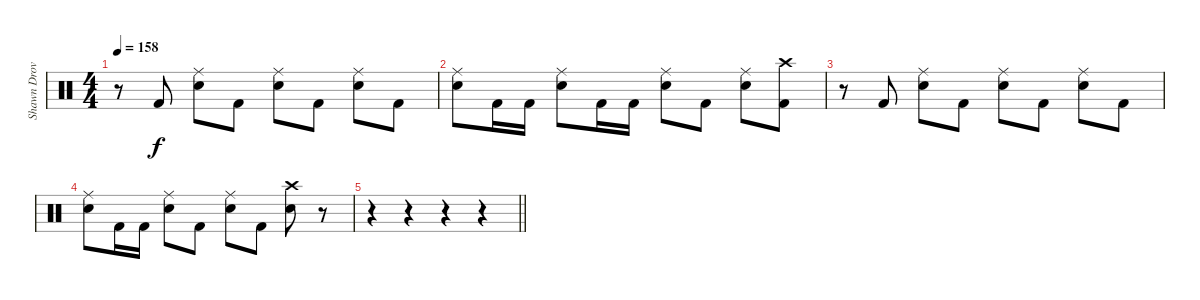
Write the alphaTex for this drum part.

\track ("Shawn Drover" "Shawn Drov") {instrument percussion}
\staff
\articulation defaults
\ts (4 4)
\tempo 158
\clef neutral
\ks c
r.8{dy f} "Kick (hit) 2".8 ("Ride (middle)" "Snare (hit) 2").8 "Kick (hit) 2".8 ("Ride (middle)" "Snare (hit) 2").8 "Kick (hit) 2".8 ("Ride (middle)" "Snare (hit) 2").8 "Kick (hit) 2".8 |
("Ride (middle)" "Snare (hit) 2").8 "Kick (hit) 2".16 "Kick (hit) 2".16 ("Ride (middle)" "Snare (hit) 2").8 "Kick (hit) 2".16 "Kick (hit) 2".16 ("Ride (middle)" "Snare (hit) 2").8 "Kick (hit) 2".8 ("Ride (middle)" "Snare (hit) 2").8 ("Crash high (hit)" "Kick (hit) 2").8 |
r.8 "Kick (hit) 2".8 ("Ride (middle)" "Snare (hit) 2").8 "Kick (hit) 2".8 ("Ride (middle)" "Snare (hit) 2").8 "Kick (hit) 2".8 ("Ride (middle)" "Snare (hit) 2").8 "Kick (hit) 2".8 |
("Ride (middle)" "Snare (hit) 2").8 "Kick (hit) 2".16 "Kick (hit) 2".16 ("Ride (middle)" "Snare (hit) 2").8 "Kick (hit) 2".8 ("Ride (middle)" "Snare (hit) 2").8 "Kick (hit) 2".8 ("Crash high (hit)" "Snare (hit) 2").8 r.8 |
\barLineRight lightlight
r.4 r.4 r.4 r.4
